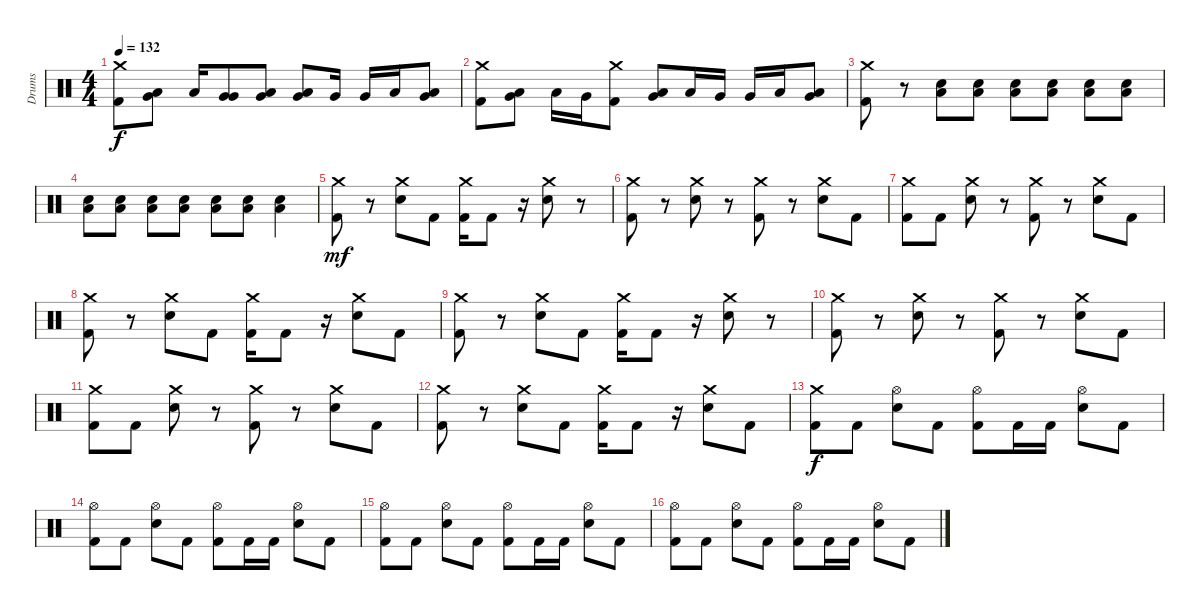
\track ("Drums" "Drums") {instrument percussion}
\staff {score}
\articulation defaults
\ts (4 4)
\tempo 132
\clef neutral
\ks c
("Crash medium (hit)" "Kick (hit) 2").8{dy f} ("Very Low Tom (hit)" "Low Floor Tom (hit)").8 "Low Floor Tom (hit)".16 ("Very Low Tom (hit)" "Very Low Tom (hit)").8 ("Very Low Tom (hit)" "Low Floor Tom (hit)").8 ("Very Low Tom (hit)" "Low Floor Tom (hit)").8 "Very Low Tom (hit)".16 "Very Low Tom (hit)".16 "Low Floor Tom (hit)".16 ("Very Low Tom (hit)" "Low Floor Tom (hit)").8 |
("Crash medium (hit)" "Kick (hit) 2").8 ("Very Low Tom (hit)" "Low Floor Tom (hit)").8 "Low Floor Tom (hit)".16 "Very Low Tom (hit)".16 ("Crash medium (hit)" "Kick (hit) 2").8 ("Very Low Tom (hit)" "Low Floor Tom (hit)").8 "Low Floor Tom (hit)".16 "Very Low Tom (hit)".16 "Very Low Tom (hit)".16 "Low Floor Tom (hit)".16 ("Very Low Tom (hit)" "Low Floor Tom (hit)").8 |
("Crash medium (hit)" "Kick (hit) 2").8 r.8{volume 6} ("Electric Snare (hit)" "Low Floor Tom (hit)").8{volume 13} ("Electric Snare (hit)" "Low Floor Tom (hit)").8 ("Electric Snare (hit)" "Low Floor Tom (hit)").8 ("Electric Snare (hit)" "Low Floor Tom (hit)").8 ("Electric Snare (hit)" "Low Floor Tom (hit)").8 ("Electric Snare (hit)" "Low Floor Tom (hit)").8 |
("Electric Snare (hit)" "Low Floor Tom (hit)").8 ("Electric Snare (hit)" "Low Floor Tom (hit)").8 ("Electric Snare (hit)" "Low Floor Tom (hit)").8 ("Electric Snare (hit)" "Low Floor Tom (hit)").8 ("Electric Snare (hit)" "Low Floor Tom (hit)").8 ("Electric Snare (hit)" "Low Floor Tom (hit)").8 ("Electric Snare (hit)" "Low Floor Tom (hit)").4 |
("Crash medium (hit)" "Kick (hit) 2").8{dy mf} r.8 ("Crash medium (hit)" "Electric Snare (hit)").8 "Kick (hit) 2".8 ("Crash medium (hit)" "Kick (hit) 2").16 "Kick (hit) 2".8 r.16 ("Crash medium (hit)" "Electric Snare (hit)").8 r.8 |
("Crash medium (hit)" "Kick (hit) 2").8 r.8 ("Crash medium (hit)" "Electric Snare (hit)").8 r.8 ("Crash medium (hit)" "Kick (hit) 2").8 r.8 ("Crash medium (hit)" "Electric Snare (hit)").8 "Kick (hit) 2".8 |
("Crash medium (hit)" "Kick (hit) 2").8 "Kick (hit) 2".8 ("Crash medium (hit)" "Electric Snare (hit)").8 r.8 ("Crash medium (hit)" "Kick (hit) 2").8 r.8 ("Crash medium (hit)" "Electric Snare (hit)").8 "Kick (hit) 2".8 |
("Crash medium (hit)" "Kick (hit) 2").8 r.8 ("Crash medium (hit)" "Electric Snare (hit)").8 "Kick (hit) 2".8 ("Crash medium (hit)" "Kick (hit) 2").16 "Kick (hit) 2".8 r.16 ("Crash medium (hit)" "Electric Snare (hit)").8 "Kick (hit) 2".8 |
("Crash medium (hit)" "Kick (hit) 2").8 r.8 ("Crash medium (hit)" "Electric Snare (hit)").8 "Kick (hit) 2".8 ("Crash medium (hit)" "Kick (hit) 2").16 "Kick (hit) 2".8 r.16 ("Crash medium (hit)" "Electric Snare (hit)").8 r.8 |
("Crash medium (hit)" "Kick (hit) 2").8 r.8 ("Crash medium (hit)" "Electric Snare (hit)").8 r.8 ("Crash medium (hit)" "Kick (hit) 2").8 r.8 ("Crash medium (hit)" "Electric Snare (hit)").8 "Kick (hit) 2".8 |
("Crash medium (hit)" "Kick (hit) 2").8 "Kick (hit) 2".8 ("Crash medium (hit)" "Electric Snare (hit)").8 r.8 ("Crash medium (hit)" "Kick (hit) 2").8 r.8 ("Crash medium (hit)" "Electric Snare (hit)").8 "Kick (hit) 2".8 |
("Crash medium (hit)" "Kick (hit) 2").8 r.8 ("Crash medium (hit)" "Electric Snare (hit)").8 "Kick (hit) 2".8 ("Crash medium (hit)" "Kick (hit) 2").16 "Kick (hit) 2".8 r.16 ("Crash medium (hit)" "Electric Snare (hit)").8 "Kick (hit) 2".8 |
("Crash medium (hit)" "Kick (hit) 2").8{dy f} "Kick (hit) 2".8 ("Hi-Hat (open)" "Electric Snare (hit)").8 "Kick (hit) 2".8 ("Hi-Hat (open)" "Kick (hit) 2").8 "Kick (hit) 2".16 "Kick (hit) 2".16 ("Hi-Hat (open)" "Electric Snare (hit)").8 "Kick (hit) 2".8 |
("Hi-Hat (open)" "Kick (hit) 2").8 "Kick (hit) 2".8 ("Hi-Hat (open)" "Electric Snare (hit)").8 "Kick (hit) 2".8 ("Hi-Hat (open)" "Kick (hit) 2").8 "Kick (hit) 2".16 "Kick (hit) 2".16 ("Hi-Hat (open)" "Electric Snare (hit)").8 "Kick (hit) 2".8 |
("Hi-Hat (open)" "Kick (hit) 2").8 "Kick (hit) 2".8 ("Hi-Hat (open)" "Electric Snare (hit)").8 "Kick (hit) 2".8 ("Hi-Hat (open)" "Kick (hit) 2").8 "Kick (hit) 2".16 "Kick (hit) 2".16 ("Hi-Hat (open)" "Electric Snare (hit)").8 "Kick (hit) 2".8 |
("Hi-Hat (open)" "Kick (hit) 2").8 "Kick (hit) 2".8 ("Hi-Hat (open)" "Electric Snare (hit)").8 "Kick (hit) 2".8 ("Hi-Hat (open)" "Kick (hit) 2").8 "Kick (hit) 2".16 "Kick (hit) 2".16 ("Hi-Hat (open)" "Electric Snare (hit)").8 "Kick (hit) 2".8
